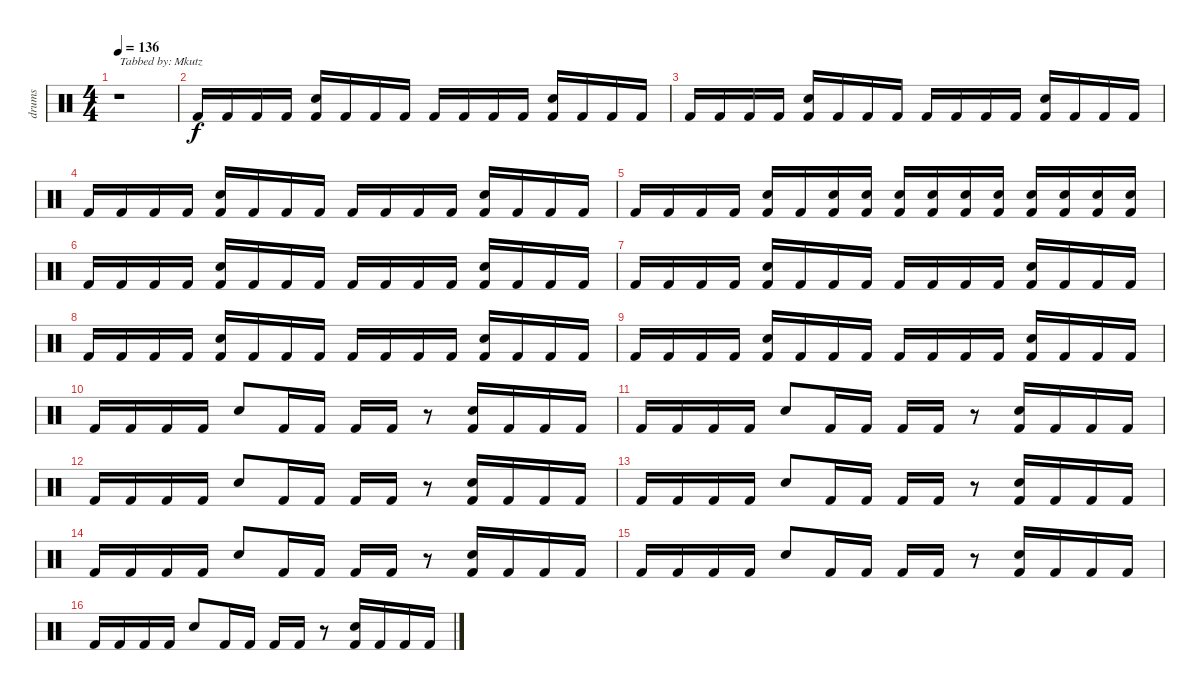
\track ("drums" "drums") {instrument percussion}
\staff {score}
\articulation defaults
\ts (4 4)
\tempo 136
\clef neutral
\ks c
r.1{txt "Tabbed by: Mkutz" dy f} |
"Kick (hit) 2".16 "Kick (hit) 2".16 "Kick (hit) 2".16 "Kick (hit) 2".16 ("Electric Snare (hit)" "Kick (hit) 2").16 "Kick (hit) 2".16 "Kick (hit) 2".16 "Kick (hit) 2".16 "Kick (hit) 2".16 "Kick (hit) 2".16 "Kick (hit) 2".16 "Kick (hit) 2".16 ("Electric Snare (hit)" "Kick (hit) 2").16 "Kick (hit) 2".16 "Kick (hit) 2".16 "Kick (hit) 2".16 |
"Kick (hit) 2".16 "Kick (hit) 2".16 "Kick (hit) 2".16 "Kick (hit) 2".16 ("Electric Snare (hit)" "Kick (hit) 2").16 "Kick (hit) 2".16 "Kick (hit) 2".16 "Kick (hit) 2".16 "Kick (hit) 2".16 "Kick (hit) 2".16 "Kick (hit) 2".16 "Kick (hit) 2".16 ("Electric Snare (hit)" "Kick (hit) 2").16 "Kick (hit) 2".16 "Kick (hit) 2".16 "Kick (hit) 2".16 |
"Kick (hit) 2".16 "Kick (hit) 2".16 "Kick (hit) 2".16 "Kick (hit) 2".16 ("Electric Snare (hit)" "Kick (hit) 2").16 "Kick (hit) 2".16 "Kick (hit) 2".16 "Kick (hit) 2".16 "Kick (hit) 2".16 "Kick (hit) 2".16 "Kick (hit) 2".16 "Kick (hit) 2".16 ("Electric Snare (hit)" "Kick (hit) 2").16 "Kick (hit) 2".16 "Kick (hit) 2".16 "Kick (hit) 2".16 |
"Kick (hit) 2".16 "Kick (hit) 2".16 "Kick (hit) 2".16 "Kick (hit) 2".16 ("Electric Snare (hit)" "Kick (hit) 2").16 "Kick (hit) 2".16 ("Electric Snare (hit)" "Kick (hit) 2").16 ("Electric Snare (hit)" "Kick (hit) 2").16 ("Electric Snare (hit)" "Kick (hit) 2").16 ("Electric Snare (hit)" "Kick (hit) 2").16 ("Electric Snare (hit)" "Kick (hit) 2").16 ("Electric Snare (hit)" "Kick (hit) 2").16 ("Electric Snare (hit)" "Kick (hit) 2").16 ("Electric Snare (hit)" "Kick (hit) 2").16 ("Electric Snare (hit)" "Kick (hit) 2").16 ("Electric Snare (hit)" "Kick (hit) 2").16 |
"Kick (hit) 2".16 "Kick (hit) 2".16 "Kick (hit) 2".16 "Kick (hit) 2".16 ("Electric Snare (hit)" "Kick (hit) 2").16 "Kick (hit) 2".16 "Kick (hit) 2".16 "Kick (hit) 2".16 "Kick (hit) 2".16 "Kick (hit) 2".16 "Kick (hit) 2".16 "Kick (hit) 2".16 ("Electric Snare (hit)" "Kick (hit) 2").16 "Kick (hit) 2".16 "Kick (hit) 2".16 "Kick (hit) 2".16 |
"Kick (hit) 2".16 "Kick (hit) 2".16 "Kick (hit) 2".16 "Kick (hit) 2".16 ("Electric Snare (hit)" "Kick (hit) 2").16 "Kick (hit) 2".16 "Kick (hit) 2".16 "Kick (hit) 2".16 "Kick (hit) 2".16 "Kick (hit) 2".16 "Kick (hit) 2".16 "Kick (hit) 2".16 ("Electric Snare (hit)" "Kick (hit) 2").16 "Kick (hit) 2".16 "Kick (hit) 2".16 "Kick (hit) 2".16 |
"Kick (hit) 2".16 "Kick (hit) 2".16 "Kick (hit) 2".16 "Kick (hit) 2".16 ("Electric Snare (hit)" "Kick (hit) 2").16 "Kick (hit) 2".16 "Kick (hit) 2".16 "Kick (hit) 2".16 "Kick (hit) 2".16 "Kick (hit) 2".16 "Kick (hit) 2".16 "Kick (hit) 2".16 ("Electric Snare (hit)" "Kick (hit) 2").16 "Kick (hit) 2".16 "Kick (hit) 2".16 "Kick (hit) 2".16 |
"Kick (hit) 2".16 "Kick (hit) 2".16 "Kick (hit) 2".16 "Kick (hit) 2".16 ("Electric Snare (hit)" "Kick (hit) 2").16 "Kick (hit) 2".16 "Kick (hit) 2".16 "Kick (hit) 2".16 "Kick (hit) 2".16 "Kick (hit) 2".16 "Kick (hit) 2".16 "Kick (hit) 2".16 ("Electric Snare (hit)" "Kick (hit) 2").16 "Kick (hit) 2".16 "Kick (hit) 2".16 "Kick (hit) 2".16 |
"Kick (hit) 2".16 "Kick (hit) 2".16 "Kick (hit) 2".16 "Kick (hit) 2".16 "Electric Snare (hit)".8 "Kick (hit) 2".16 "Kick (hit) 2".16 "Kick (hit) 2".16 "Kick (hit) 2".16 r.8 ("Electric Snare (hit)" "Kick (hit) 2").16 "Kick (hit) 2".16 "Kick (hit) 2".16 "Kick (hit) 2".16 |
"Kick (hit) 2".16 "Kick (hit) 2".16 "Kick (hit) 2".16 "Kick (hit) 2".16 "Electric Snare (hit)".8 "Kick (hit) 2".16 "Kick (hit) 2".16 "Kick (hit) 2".16 "Kick (hit) 2".16 r.8 ("Electric Snare (hit)" "Kick (hit) 2").16 "Kick (hit) 2".16 "Kick (hit) 2".16 "Kick (hit) 2".16 |
"Kick (hit) 2".16 "Kick (hit) 2".16 "Kick (hit) 2".16 "Kick (hit) 2".16 "Electric Snare (hit)".8 "Kick (hit) 2".16 "Kick (hit) 2".16 "Kick (hit) 2".16 "Kick (hit) 2".16 r.8 ("Electric Snare (hit)" "Kick (hit) 2").16 "Kick (hit) 2".16 "Kick (hit) 2".16 "Kick (hit) 2".16 |
"Kick (hit) 2".16 "Kick (hit) 2".16 "Kick (hit) 2".16 "Kick (hit) 2".16 "Electric Snare (hit)".8 "Kick (hit) 2".16 "Kick (hit) 2".16 "Kick (hit) 2".16 "Kick (hit) 2".16 r.8 ("Electric Snare (hit)" "Kick (hit) 2").16 "Kick (hit) 2".16 "Kick (hit) 2".16 "Kick (hit) 2".16 |
"Kick (hit) 2".16 "Kick (hit) 2".16 "Kick (hit) 2".16 "Kick (hit) 2".16 "Electric Snare (hit)".8 "Kick (hit) 2".16 "Kick (hit) 2".16 "Kick (hit) 2".16 "Kick (hit) 2".16 r.8 ("Electric Snare (hit)" "Kick (hit) 2").16 "Kick (hit) 2".16 "Kick (hit) 2".16 "Kick (hit) 2".16 |
"Kick (hit) 2".16 "Kick (hit) 2".16 "Kick (hit) 2".16 "Kick (hit) 2".16 "Electric Snare (hit)".8 "Kick (hit) 2".16 "Kick (hit) 2".16 "Kick (hit) 2".16 "Kick (hit) 2".16 r.8 ("Electric Snare (hit)" "Kick (hit) 2").16 "Kick (hit) 2".16 "Kick (hit) 2".16 "Kick (hit) 2".16 |
"Kick (hit) 2".16 "Kick (hit) 2".16 "Kick (hit) 2".16 "Kick (hit) 2".16 "Electric Snare (hit)".8 "Kick (hit) 2".16 "Kick (hit) 2".16 "Kick (hit) 2".16 "Kick (hit) 2".16 r.8 ("Electric Snare (hit)" "Kick (hit) 2").16 "Kick (hit) 2".16 "Kick (hit) 2".16 "Kick (hit) 2".16
